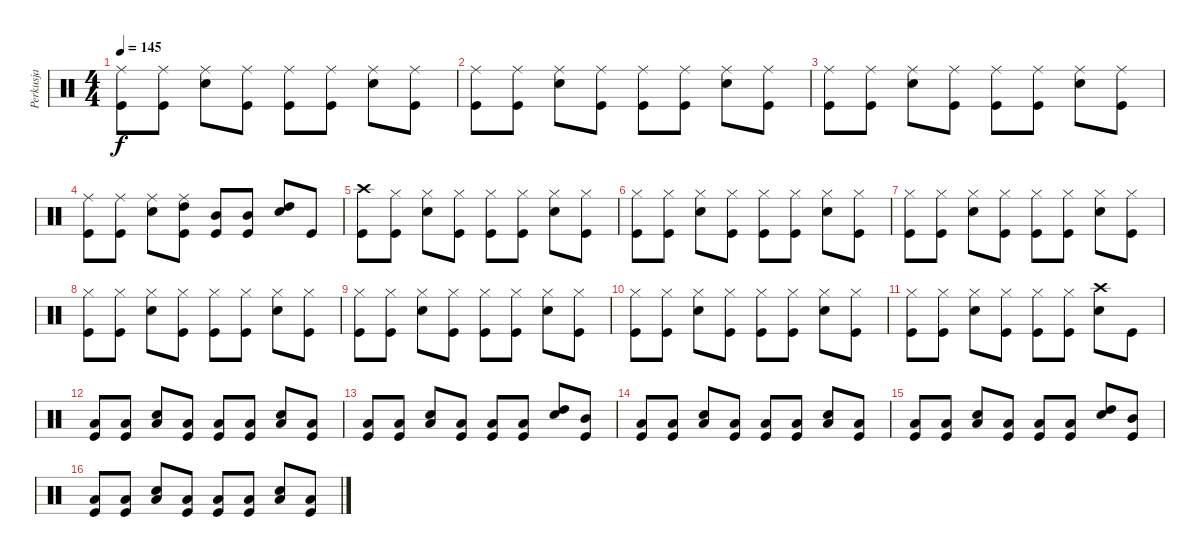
\track ("Perkusja" "Perkusja") {instrument percussion}
\staff {score}
\articulation defaults
\ts (4 4)
\tempo 145
\clef neutral
\ks c
("Ride (middle)" "Kick (hit)").8{dy f} ("Ride (middle)" "Kick (hit)").8 ("Ride (middle)" "Snare (hit) 2").8 ("Ride (middle)" "Kick (hit)").8 ("Ride (middle)" "Kick (hit)").8 ("Ride (middle)" "Kick (hit)").8 ("Ride (middle)" "Snare (hit) 2").8 ("Ride (middle)" "Kick (hit)").8 |
("Ride (middle)" "Kick (hit)").8 ("Ride (middle)" "Kick (hit)").8 ("Ride (middle)" "Snare (hit) 2").8 ("Ride (middle)" "Kick (hit)").8 ("Ride (middle)" "Kick (hit)").8 ("Ride (middle)" "Kick (hit)").8 ("Ride (middle)" "Snare (hit) 2").8 ("Ride (middle)" "Kick (hit)").8 |
("Ride (middle)" "Kick (hit)").8 ("Ride (middle)" "Kick (hit)").8 ("Ride (middle)" "Snare (hit) 2").8 ("Ride (middle)" "Kick (hit)").8 ("Ride (middle)" "Kick (hit)").8 ("Ride (middle)" "Kick (hit)").8 ("Ride (middle)" "Snare (hit) 2").8 ("Ride (middle)" "Kick (hit)").8 |
("Ride (middle)" "Kick (hit)").8 ("Ride (middle)" "Kick (hit)").8 ("Ride (middle)" "Snare (hit) 2").8 ("Ride (middle)" "High Tom (hit)" "Kick (hit)").8 ("Mid Tom (hit)" "Kick (hit)").8 ("Mid Tom (hit)" "Kick (hit)").8 ("High Tom (hit)" "Snare (hit) 2").8 "Kick (hit)".8 |
("Crash high (hit)" "Kick (hit)").8 ("Hi-Hat (closed)" "Kick (hit)").8 ("Hi-Hat (closed)" "Snare (hit) 2").8 ("Hi-Hat (closed)" "Kick (hit)").8 ("Hi-Hat (closed)" "Kick (hit)").8 ("Hi-Hat (closed)" "Kick (hit)").8 ("Hi-Hat (closed)" "Snare (hit) 2").8 ("Hi-Hat (closed)" "Kick (hit)").8 |
("Hi-Hat (closed)" "Kick (hit)").8 ("Hi-Hat (closed)" "Kick (hit)").8 ("Hi-Hat (closed)" "Snare (hit) 2").8 ("Hi-Hat (closed)" "Kick (hit)").8 ("Hi-Hat (closed)" "Kick (hit)").8 ("Hi-Hat (closed)" "Kick (hit)").8 ("Hi-Hat (closed)" "Snare (hit) 2").8 ("Hi-Hat (closed)" "Kick (hit)").8 |
("Hi-Hat (closed)" "Kick (hit)").8 ("Hi-Hat (closed)" "Kick (hit)").8 ("Hi-Hat (closed)" "Snare (hit) 2").8 ("Hi-Hat (closed)" "Kick (hit)").8 ("Hi-Hat (closed)" "Kick (hit)").8 ("Hi-Hat (closed)" "Kick (hit)").8 ("Hi-Hat (closed)" "Snare (hit) 2").8 ("Hi-Hat (closed)" "Kick (hit)").8 |
("Hi-Hat (closed)" "Kick (hit)").8 ("Hi-Hat (closed)" "Kick (hit)").8 ("Hi-Hat (closed)" "Snare (hit) 2").8 ("Hi-Hat (closed)" "Kick (hit)").8 ("Hi-Hat (closed)" "Kick (hit)").8 ("Hi-Hat (closed)" "Kick (hit)").8 ("Hi-Hat (closed)" "Snare (hit) 2").8 ("Hi-Hat (closed)" "Kick (hit)").8 |
("Hi-Hat (closed)" "Kick (hit)").8 ("Hi-Hat (closed)" "Kick (hit)").8 ("Hi-Hat (closed)" "Snare (hit) 2").8 ("Hi-Hat (closed)" "Kick (hit)").8 ("Hi-Hat (closed)" "Kick (hit)").8 ("Hi-Hat (closed)" "Kick (hit)").8 ("Hi-Hat (closed)" "Snare (hit) 2").8 ("Hi-Hat (closed)" "Kick (hit)").8 |
("Hi-Hat (closed)" "Kick (hit)").8 ("Hi-Hat (closed)" "Kick (hit)").8 ("Hi-Hat (closed)" "Snare (hit) 2").8 ("Hi-Hat (closed)" "Kick (hit)").8 ("Hi-Hat (closed)" "Kick (hit)").8 ("Hi-Hat (closed)" "Kick (hit)").8 ("Hi-Hat (closed)" "Snare (hit) 2").8 ("Hi-Hat (closed)" "Kick (hit)").8 |
("Hi-Hat (closed)" "Kick (hit)").8 ("Hi-Hat (closed)" "Kick (hit)").8 ("Hi-Hat (closed)" "Snare (hit) 2").8 ("Hi-Hat (closed)" "Kick (hit)").8 ("Hi-Hat (closed)" "Kick (hit)").8 ("Hi-Hat (closed)" "Kick (hit)").8 ("Crash high (hit)" "Snare (hit) 2").8 "Kick (hit)".8 |
("Low Floor Tom (hit)" "Kick (hit)").8 ("Low Floor Tom (hit)" "Kick (hit)").8 ("Low Floor Tom (hit)" "Snare (hit) 2").8 ("Low Floor Tom (hit)" "Kick (hit)").8 ("Low Floor Tom (hit)" "Kick (hit)").8 ("Low Floor Tom (hit)" "Kick (hit)").8 ("Low Floor Tom (hit)" "Snare (hit) 2").8 ("Low Floor Tom (hit)" "Kick (hit)").8 |
("Low Floor Tom (hit)" "Kick (hit)").8 ("Low Floor Tom (hit)" "Kick (hit)").8 ("Low Floor Tom (hit)" "Snare (hit) 2").8 ("Low Floor Tom (hit)" "Kick (hit)").8 ("Low Floor Tom (hit)" "Kick (hit)").8 ("Low Floor Tom (hit)" "Kick (hit)").8 ("High Tom (hit)" "Snare (hit) 2").8 ("Mid Tom (hit)" "Kick (hit)").8 |
("Low Floor Tom (hit)" "Kick (hit)").8 ("Low Floor Tom (hit)" "Kick (hit)").8 ("Low Floor Tom (hit)" "Snare (hit) 2").8 ("Low Floor Tom (hit)" "Kick (hit)").8 ("Low Floor Tom (hit)" "Kick (hit)").8 ("Low Floor Tom (hit)" "Kick (hit)").8 ("Low Floor Tom (hit)" "Snare (hit) 2").8 ("Low Floor Tom (hit)" "Kick (hit)").8 |
("Low Floor Tom (hit)" "Kick (hit)").8 ("Low Floor Tom (hit)" "Kick (hit)").8 ("Low Floor Tom (hit)" "Snare (hit) 2").8 ("Low Floor Tom (hit)" "Kick (hit)").8 ("Low Floor Tom (hit)" "Kick (hit)").8 ("Low Floor Tom (hit)" "Kick (hit)").8 ("High Tom (hit)" "Snare (hit) 2").8 ("Mid Tom (hit)" "Kick (hit)").8 |
("Low Floor Tom (hit)" "Kick (hit)").8 ("Low Floor Tom (hit)" "Kick (hit)").8 ("Low Floor Tom (hit)" "Snare (hit) 2").8 ("Low Floor Tom (hit)" "Kick (hit)").8 ("Low Floor Tom (hit)" "Kick (hit)").8 ("Low Floor Tom (hit)" "Kick (hit)").8 ("Low Floor Tom (hit)" "Snare (hit) 2").8 ("Low Floor Tom (hit)" "Kick (hit)").8
